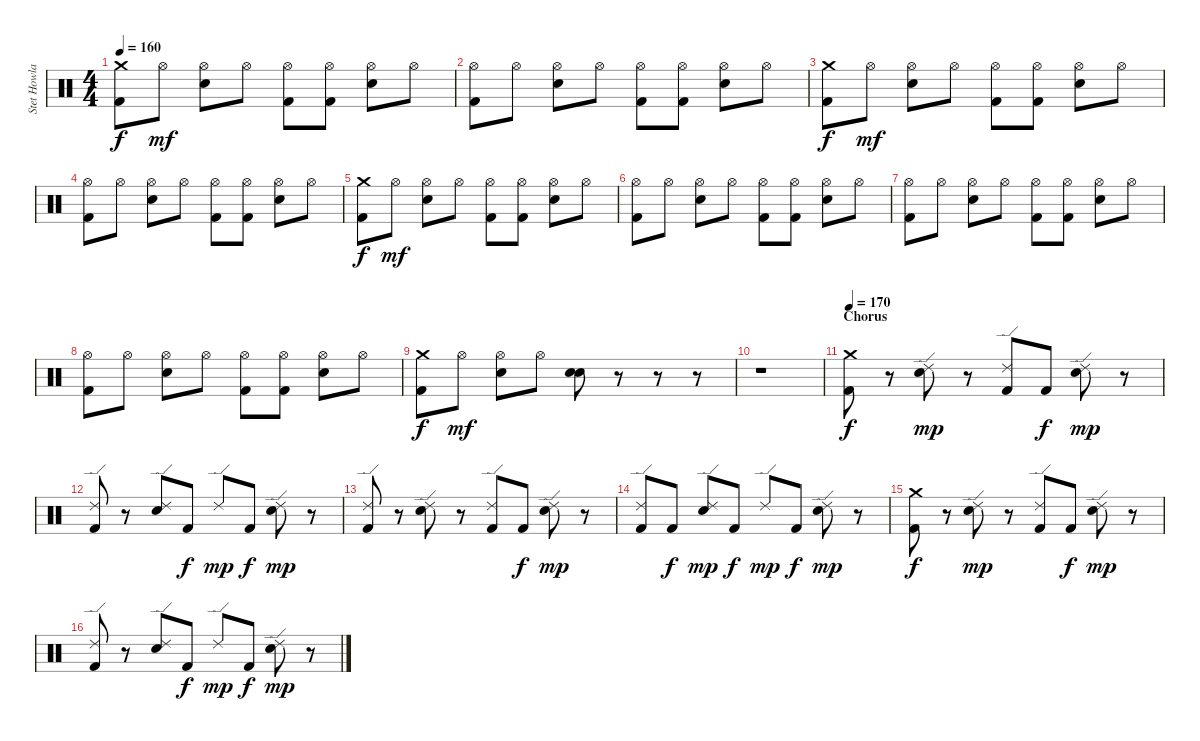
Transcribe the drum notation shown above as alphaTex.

\track ("Stet Howland" "Stet Howla") {instrument percussion}
\staff {score}
\articulation defaults
\ts (4 4)
\tempo 160
\clef neutral
\ks c
("Crash medium (hit)" "Kick (hit) 2").8{dy f} "Hi-Hat (open)".8{dy mf} ("Hi-Hat (open)" "Electric Snare (hit)").8 "Hi-Hat (open)".8 ("Hi-Hat (open)" "Kick (hit) 2").8 ("Hi-Hat (open)" "Kick (hit) 2").8 ("Hi-Hat (open)" "Electric Snare (hit)").8 "Hi-Hat (open)".8 |
("Hi-Hat (open)" "Kick (hit) 2").8 "Hi-Hat (open)".8 ("Hi-Hat (open)" "Electric Snare (hit)").8 "Hi-Hat (open)".8 ("Hi-Hat (open)" "Kick (hit) 2").8 ("Hi-Hat (open)" "Kick (hit) 2").8 ("Hi-Hat (open)" "Electric Snare (hit)").8 "Hi-Hat (open)".8 |
("Crash medium (hit)" "Kick (hit) 2").8{dy f} "Hi-Hat (open)".8{dy mf} ("Hi-Hat (open)" "Electric Snare (hit)").8 "Hi-Hat (open)".8 ("Hi-Hat (open)" "Kick (hit) 2").8 ("Hi-Hat (open)" "Kick (hit) 2").8 ("Hi-Hat (open)" "Electric Snare (hit)").8 "Hi-Hat (open)".8 |
("Hi-Hat (open)" "Kick (hit) 2").8 "Hi-Hat (open)".8 ("Hi-Hat (open)" "Electric Snare (hit)").8 "Hi-Hat (open)".8 ("Hi-Hat (open)" "Kick (hit) 2").8 ("Hi-Hat (open)" "Kick (hit) 2").8 ("Hi-Hat (open)" "Electric Snare (hit)").8 "Hi-Hat (open)".8 |
("Crash medium (hit)" "Kick (hit) 2").8{dy f} "Hi-Hat (open)".8{dy mf} ("Hi-Hat (open)" "Electric Snare (hit)").8 "Hi-Hat (open)".8 ("Hi-Hat (open)" "Kick (hit) 2").8 ("Hi-Hat (open)" "Kick (hit) 2").8 ("Hi-Hat (open)" "Electric Snare (hit)").8 "Hi-Hat (open)".8 |
("Hi-Hat (open)" "Kick (hit) 2").8 "Hi-Hat (open)".8 ("Hi-Hat (open)" "Electric Snare (hit)").8 "Hi-Hat (open)".8 ("Hi-Hat (open)" "Kick (hit) 2").8 ("Hi-Hat (open)" "Kick (hit) 2").8 ("Hi-Hat (open)" "Electric Snare (hit)").8 "Hi-Hat (open)".8 |
("Hi-Hat (open)" "Kick (hit) 2").8 "Hi-Hat (open)".8 ("Hi-Hat (open)" "Electric Snare (hit)").8 "Hi-Hat (open)".8 ("Hi-Hat (open)" "Kick (hit) 2").8 ("Hi-Hat (open)" "Kick (hit) 2").8 ("Hi-Hat (open)" "Electric Snare (hit)").8 "Hi-Hat (open)".8 |
("Hi-Hat (open)" "Kick (hit) 2").8 "Hi-Hat (open)".8 ("Hi-Hat (open)" "Electric Snare (hit)").8 "Hi-Hat (open)".8 ("Hi-Hat (open)" "Kick (hit) 2").8 ("Hi-Hat (open)" "Kick (hit) 2").8 ("Hi-Hat (open)" "Electric Snare (hit)").8 "Hi-Hat (open)".8 |
("Crash medium (hit)" "Kick (hit) 2").8{dy f} "Hi-Hat (open)".8{dy mf} ("Hi-Hat (open)" "Electric Snare (hit)").8 "Hi-Hat (open)".8 ("Electric Snare (hit)" "Electric Snare (hit)").8 r.8 r.8 r.8 |
r.1 |
\section ("" "Chorus")
\tempo 170
("Crash medium (hit)" "Kick (hit) 2").8{dy f} r.8 ("Ride (edge) 2" "Electric Snare (hit)").8{dy mp} r.8 ("Ride (edge) 2" "Kick (hit) 2").8 "Kick (hit) 2".8{dy f} ("Ride (edge) 2" "Electric Snare (hit)").8{dy mp} r.8 |
("Ride (edge) 2" "Kick (hit) 2").8 r.8 ("Ride (edge) 2" "Electric Snare (hit)").8 "Kick (hit) 2".8{dy f} "Ride (edge) 2".8{dy mp} "Kick (hit) 2".8{dy f} ("Ride (edge) 2" "Electric Snare (hit)").8{dy mp} r.8 |
("Ride (edge) 2" "Kick (hit) 2").8 r.8 ("Ride (edge) 2" "Electric Snare (hit)").8 r.8 ("Ride (edge) 2" "Kick (hit) 2").8 "Kick (hit) 2".8{dy f} ("Ride (edge) 2" "Electric Snare (hit)").8{dy mp} r.8 |
("Ride (edge) 2" "Kick (hit) 2").8 "Kick (hit) 2".8{dy f} ("Ride (edge) 2" "Electric Snare (hit)").8{dy mp} "Kick (hit) 2".8{dy f} "Ride (edge) 2".8{dy mp} "Kick (hit) 2".8{dy f} ("Ride (edge) 2" "Electric Snare (hit)").8{dy mp} r.8 |
("Crash medium (hit)" "Kick (hit) 2").8{dy f} r.8 ("Ride (edge) 2" "Electric Snare (hit)").8{dy mp} r.8 ("Ride (edge) 2" "Kick (hit) 2").8 "Kick (hit) 2".8{dy f} ("Ride (edge) 2" "Electric Snare (hit)").8{dy mp} r.8 |
("Ride (edge) 2" "Kick (hit) 2").8 r.8 ("Ride (edge) 2" "Electric Snare (hit)").8 "Kick (hit) 2".8{dy f} "Ride (edge) 2".8{dy mp} "Kick (hit) 2".8{dy f} ("Ride (edge) 2" "Electric Snare (hit)").8{dy mp} r.8
